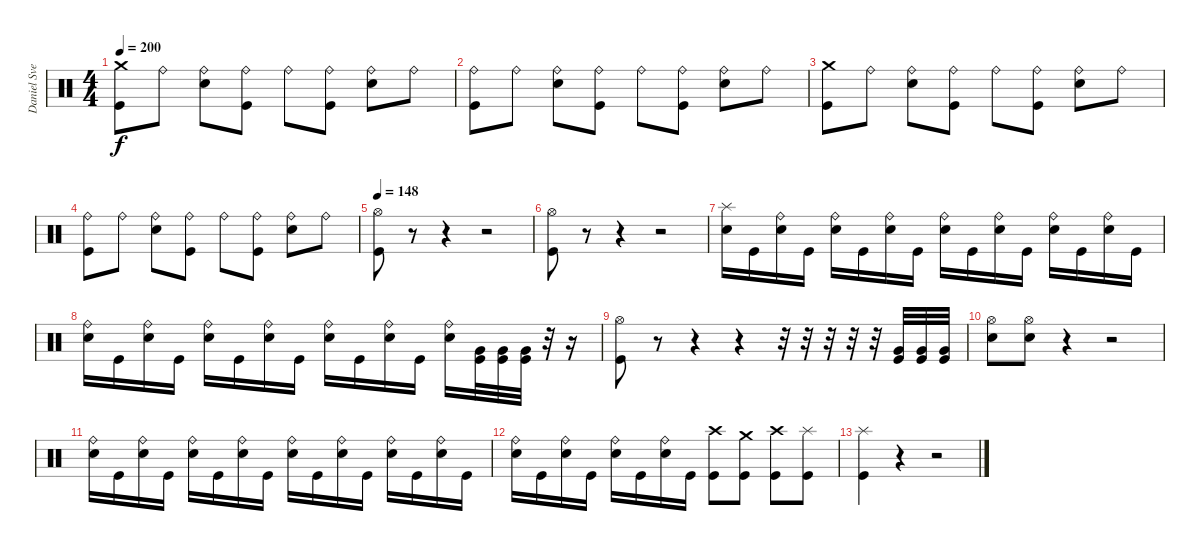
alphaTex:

\track ("Daniel Svenson" "Daniel Sve") {instrument percussion}
\staff {score}
\articulation defaults
\ts (4 4)
\tempo 200
\clef neutral
\ks c
("Kick (hit)" "Crash medium (hit)").8{dy f} "Ride (bell)".8 ("Electric Snare (hit)" "Ride (bell)").8 ("Kick (hit)" "Ride (bell)").8 "Ride (bell)".8 ("Kick (hit)" "Ride (bell)").8 ("Electric Snare (hit)" "Ride (bell)").8 "Ride (bell)".8 |
("Kick (hit)" "Ride (bell)").8 "Ride (bell)".8 ("Electric Snare (hit)" "Ride (bell)").8 ("Kick (hit)" "Ride (bell)").8 "Ride (bell)".8 ("Kick (hit)" "Ride (bell)").8 ("Electric Snare (hit)" "Ride (bell)").8 "Ride (bell)".8 |
("Kick (hit)" "Crash medium (hit)").8 "Ride (bell)".8 ("Electric Snare (hit)" "Ride (bell)").8 ("Kick (hit)" "Ride (bell)").8 "Ride (bell)".8 ("Kick (hit)" "Ride (bell)").8 ("Electric Snare (hit)" "Ride (bell)").8 "Ride (bell)".8 |
("Kick (hit)" "Ride (bell)").8 "Ride (bell)".8 ("Electric Snare (hit)" "Ride (bell)").8 ("Kick (hit)" "Ride (bell)").8 "Ride (bell)".8 ("Kick (hit)" "Ride (bell)").8 ("Electric Snare (hit)" "Ride (bell)").8 "Ride (bell)".8 |
\tempo 148
("Kick (hit)" "Hi-Hat (open)").8 r.8 r.4 r.2 |
("Kick (hit)" "Hi-Hat (open)").8 r.8 r.4 r.2 |
("Electric Snare (hit)" "Splash (hit)").16 "Kick (hit)".16 ("Electric Snare (hit)" "Ride (bell)").16 "Kick (hit)".16 ("Electric Snare (hit)" "Ride (bell)").16 "Kick (hit)".16 ("Electric Snare (hit)" "Ride (bell)").16 "Kick (hit)".16 ("Electric Snare (hit)" "Ride (bell)").16 "Kick (hit)".16 ("Electric Snare (hit)" "Ride (bell)").16 "Kick (hit)".16 ("Electric Snare (hit)" "Ride (bell)").16 "Kick (hit)".16 ("Electric Snare (hit)" "Ride (bell)").16 "Kick (hit)".16 |
("Electric Snare (hit)" "Ride (bell)").16 "Kick (hit)".16 ("Electric Snare (hit)" "Ride (bell)").16 "Kick (hit)".16 ("Electric Snare (hit)" "Ride (bell)").16 "Kick (hit)".16 ("Electric Snare (hit)" "Ride (bell)").16 "Kick (hit)".16 ("Electric Snare (hit)" "Ride (bell)").16 "Kick (hit)".16 ("Electric Snare (hit)" "Ride (bell)").16 "Kick (hit)".16 ("Electric Snare (hit)" "Ride (bell)").16 ("Kick (hit)" "Very Low Tom (hit)").32 ("Kick (hit)" "Very Low Tom (hit)").32 ("Kick (hit)" "Very Low Tom (hit)").32 r.32 r.16 |
("Kick (hit)" "Hi-Hat (open)").8 r.8 r.4 r.4 r.32 r.32 r.32 r.32 r.32 ("Kick (hit)" "Very Low Tom (hit)").32 ("Kick (hit)" "Very Low Tom (hit)").32 ("Kick (hit)" "Very Low Tom (hit)").32 |
("Electric Snare (hit)" "Hi-Hat (open)").8 ("Electric Snare (hit)" "Hi-Hat (open)").8 r.4 r.2 |
("Electric Snare (hit)" "Ride (bell)").16 "Kick (hit)".16 ("Electric Snare (hit)" "Ride (bell)").16 "Kick (hit)".16 ("Electric Snare (hit)" "Ride (bell)").16 "Kick (hit)".16 ("Electric Snare (hit)" "Ride (bell)").16 "Kick (hit)".16 ("Electric Snare (hit)" "Ride (bell)").16 "Kick (hit)".16 ("Electric Snare (hit)" "Ride (bell)").16 "Kick (hit)".16 ("Electric Snare (hit)" "Ride (bell)").16 "Kick (hit)".16 ("Electric Snare (hit)" "Ride (bell)").16 "Kick (hit)".16 |
("Electric Snare (hit)" "Ride (bell)").16 "Kick (hit)".16 ("Electric Snare (hit)" "Ride (bell)").16 "Kick (hit)".16 ("Electric Snare (hit)" "Ride (bell)").16 "Kick (hit)".16 ("Electric Snare (hit)" "Ride (bell)").16 "Kick (hit)".16 ("Kick (hit)" "Crash high (hit)").8 ("Kick (hit)" "Crash medium (hit)").8 ("Kick (hit)" "Crash high (hit)").8 ("Kick (hit)" "Splash (hit)").8 |
("Kick (hit)" "Splash (hit)").4 r.4 r.2
